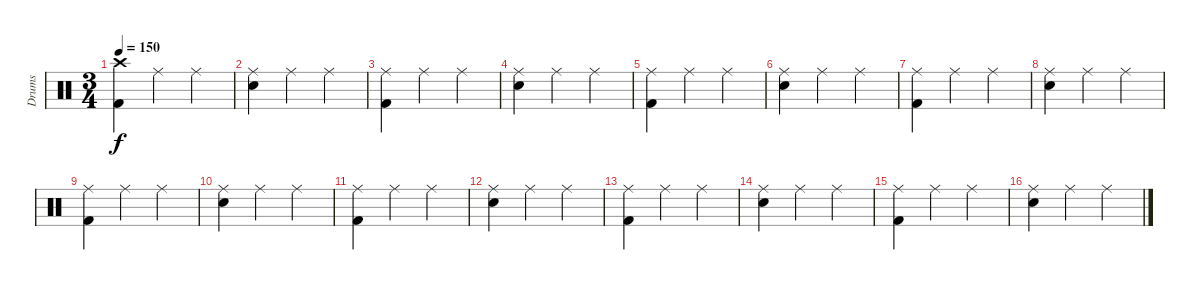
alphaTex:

\track ("Drums" "Drums") {instrument percussion}
\staff {score}
\articulation defaults
\ts (3 4)
\tempo 150
\clef neutral
\ks c
("Crash high (hit)" "Kick (hit) 2").4{dy f} "Ride (middle)".4 "Ride (middle)".4 |
("Ride (middle)" "Snare (hit) 2").4 "Ride (middle)".4 "Ride (middle)".4 |
("Ride (middle)" "Kick (hit) 2").4 "Ride (middle)".4 "Ride (middle)".4 |
("Ride (middle)" "Snare (hit) 2").4 "Ride (middle)".4 "Ride (middle)".4 |
("Ride (middle)" "Kick (hit) 2").4 "Ride (middle)".4 "Ride (middle)".4 |
("Ride (middle)" "Snare (hit) 2").4 "Ride (middle)".4 "Ride (middle)".4 |
("Ride (middle)" "Kick (hit) 2").4 "Ride (middle)".4 "Ride (middle)".4 |
("Ride (middle)" "Snare (hit) 2").4 "Ride (middle)".4 "Ride (middle)".4 |
("Ride (middle)" "Kick (hit) 2").4{volume 11} "Ride (middle)".4 "Ride (middle)".4 |
("Ride (middle)" "Snare (hit) 2").4 "Ride (middle)".4 "Ride (middle)".4 |
("Ride (middle)" "Kick (hit) 2").4 "Ride (middle)".4 "Ride (middle)".4 |
("Ride (middle)" "Snare (hit) 2").4 "Ride (middle)".4 "Ride (middle)".4 |
("Ride (middle)" "Kick (hit) 2").4 "Ride (middle)".4 "Ride (middle)".4 |
("Ride (middle)" "Snare (hit) 2").4 "Ride (middle)".4 "Ride (middle)".4 |
("Ride (middle)" "Kick (hit) 2").4 "Ride (middle)".4 "Ride (middle)".4 |
("Ride (middle)" "Snare (hit) 2").4 "Ride (middle)".4 "Ride (middle)".4
